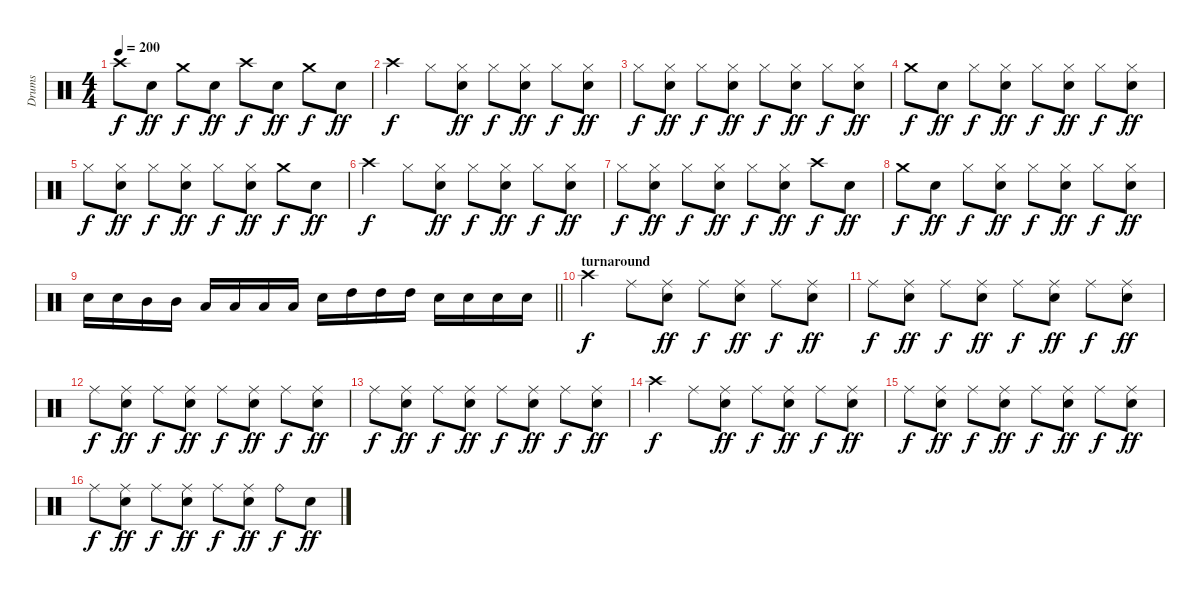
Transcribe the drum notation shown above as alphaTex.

\track ("Drums" "Drums") {instrument percussion}
\staff {score}
\articulation defaults
\ts (4 4)
\tempo 200
\clef neutral
\ks c "Crash high (hit)".8{dy f} "Snare (hit) 2".8{dy ff} "Crash medium (hit)".8{dy f} "Snare (hit) 2".8{dy ff} "Crash high (hit)".8{dy f} "Snare (hit) 2".8{dy ff} "Crash medium (hit)".8{dy f} "Snare (hit) 2".8{dy ff}
|
"Crash high (hit)".4{dy f} "Hi-Hat (closed)".8 ("Hi-Hat (closed)" "Snare (hit) 2").8{dy ff} "Hi-Hat (closed)".8{dy f} ("Hi-Hat (closed)" "Snare (hit) 2").8{dy ff} "Hi-Hat (closed)".8{dy f} ("Hi-Hat (closed)" "Snare (hit) 2").8{dy ff} |
"Hi-Hat (closed)".8{dy f} ("Hi-Hat (closed)" "Snare (hit) 2").8{dy ff} "Hi-Hat (closed)".8{dy f} ("Hi-Hat (closed)" "Snare (hit) 2").8{dy ff} "Hi-Hat (closed)".8{dy f} ("Hi-Hat (closed)" "Snare (hit) 2").8{dy ff} "Hi-Hat (closed)".8{dy f} ("Hi-Hat (closed)" "Snare (hit) 2").8{dy ff} |
"Crash medium (hit)".8{dy f} "Snare (hit) 2".8{dy ff} "Hi-Hat (closed)".8{dy f} ("Hi-Hat (closed)" "Snare (hit) 2").8{dy ff} "Hi-Hat (closed)".8{dy f} ("Hi-Hat (closed)" "Snare (hit) 2").8{dy ff} "Hi-Hat (closed)".8{dy f} ("Hi-Hat (closed)" "Snare (hit) 2").8{dy ff} |
"Hi-Hat (closed)".8{dy f} ("Hi-Hat (closed)" "Snare (hit) 2").8{dy ff} "Hi-Hat (closed)".8{dy f} ("Hi-Hat (closed)" "Snare (hit) 2").8{dy ff} "Hi-Hat (closed)".8{dy f} ("Hi-Hat (closed)" "Snare (hit) 2").8{dy ff} "Crash medium (hit)".8{dy f} "Snare (hit) 2".8{dy ff} |
"Crash high (hit)".4{dy f} "Hi-Hat (closed)".8 ("Hi-Hat (closed)" "Snare (hit) 2").8{dy ff} "Hi-Hat (closed)".8{dy f} ("Hi-Hat (closed)" "Snare (hit) 2").8{dy ff} "Hi-Hat (closed)".8{dy f} ("Hi-Hat (closed)" "Snare (hit) 2").8{dy ff} |
"Hi-Hat (closed)".8{dy f} ("Hi-Hat (closed)" "Snare (hit) 2").8{dy ff} "Hi-Hat (closed)".8{dy f} ("Hi-Hat (closed)" "Snare (hit) 2").8{dy ff} "Hi-Hat (closed)".8{dy f} ("Hi-Hat (closed)" "Snare (hit) 2").8{dy ff} "Crash high (hit)".8{dy f} "Snare (hit) 2".8{dy ff} |
"Crash medium (hit)".8{dy f} "Snare (hit) 2".8{dy ff} "Hi-Hat (closed)".8{dy f} ("Hi-Hat (closed)" "Snare (hit) 2").8{dy ff} "Hi-Hat (closed)".8{dy f} ("Hi-Hat (closed)" "Snare (hit) 2").8{dy ff} "Hi-Hat (closed)".8{dy f} ("Hi-Hat (closed)" "Snare (hit) 2").8{dy ff} |
\barLineRight lightlight "Snare (hit) 2".16 "Snare (hit) 2".16 "Mid Tom (hit)".16 "Mid Tom (hit)".16 "Low Tom (hit)".16 "Low Tom (hit)".16 "Low Tom (hit)".16 "Low Tom (hit)".16 "Snare (hit) 2".16 "High Tom (hit)".16 "High Tom (hit)".16 "High Tom (hit)".16 "Snare (hit) 2".16 "Snare (hit) 2".16 "Snare (hit) 2".16 "Snare (hit) 2".16
|
\section ("" "turnaround")
"Crash high (hit)".4{dy f} "Ride (middle)".8 ("Ride (middle)" "Snare (hit) 2").8{dy ff} "Ride (middle)".8{dy f} ("Ride (middle)" "Snare (hit) 2").8{dy ff} "Ride (middle)".8{dy f} ("Ride (middle)" "Snare (hit) 2").8{dy ff} |
"Ride (middle)".8{dy f} ("Ride (middle)" "Snare (hit) 2").8{dy ff} "Ride (middle)".8{dy f} ("Ride (middle)" "Snare (hit) 2").8{dy ff} "Ride (middle)".8{dy f} ("Ride (middle)" "Snare (hit) 2").8{dy ff} "Ride (middle)".8{dy f} ("Ride (middle)" "Snare (hit) 2").8{dy ff} |
"Ride (middle)".8{dy f} ("Ride (middle)" "Snare (hit) 2").8{dy ff} "Ride (middle)".8{dy f} ("Ride (middle)" "Snare (hit) 2").8{dy ff} "Ride (middle)".8{dy f} ("Ride (middle)" "Snare (hit) 2").8{dy ff} "Ride (middle)".8{dy f} ("Ride (middle)" "Snare (hit) 2").8{dy ff} |
"Ride (middle)".8{dy f} ("Ride (middle)" "Snare (hit) 2").8{dy ff} "Ride (middle)".8{dy f} ("Ride (middle)" "Snare (hit) 2").8{dy ff} "Ride (middle)".8{dy f} ("Ride (middle)" "Snare (hit) 2").8{dy ff} "Ride (middle)".8{dy f} ("Ride (middle)" "Snare (hit) 2").8{dy ff} |
"Crash high (hit)".4{dy f} "Ride (middle)".8 ("Ride (middle)" "Snare (hit) 2").8{dy ff} "Ride (middle)".8{dy f} ("Ride (middle)" "Snare (hit) 2").8{dy ff} "Ride (middle)".8{dy f} ("Ride (middle)" "Snare (hit) 2").8{dy ff} |
"Ride (middle)".8{dy f} ("Ride (middle)" "Snare (hit) 2").8{dy ff} "Ride (middle)".8{dy f} ("Ride (middle)" "Snare (hit) 2").8{dy ff} "Ride (middle)".8{dy f} ("Ride (middle)" "Snare (hit) 2").8{dy ff} "Ride (middle)".8{dy f} ("Ride (middle)" "Snare (hit) 2").8{dy ff} |
"Ride (middle)".8{dy f} ("Ride (middle)" "Snare (hit) 2").8{dy ff} "Ride (middle)".8{dy f} ("Ride (middle)" "Snare (hit) 2").8{dy ff} "Ride (middle)".8{dy f} ("Ride (middle)" "Snare (hit) 2").8{dy ff} "Ride (bell)".8{dy f} "Snare (hit) 2".8{dy ff}
